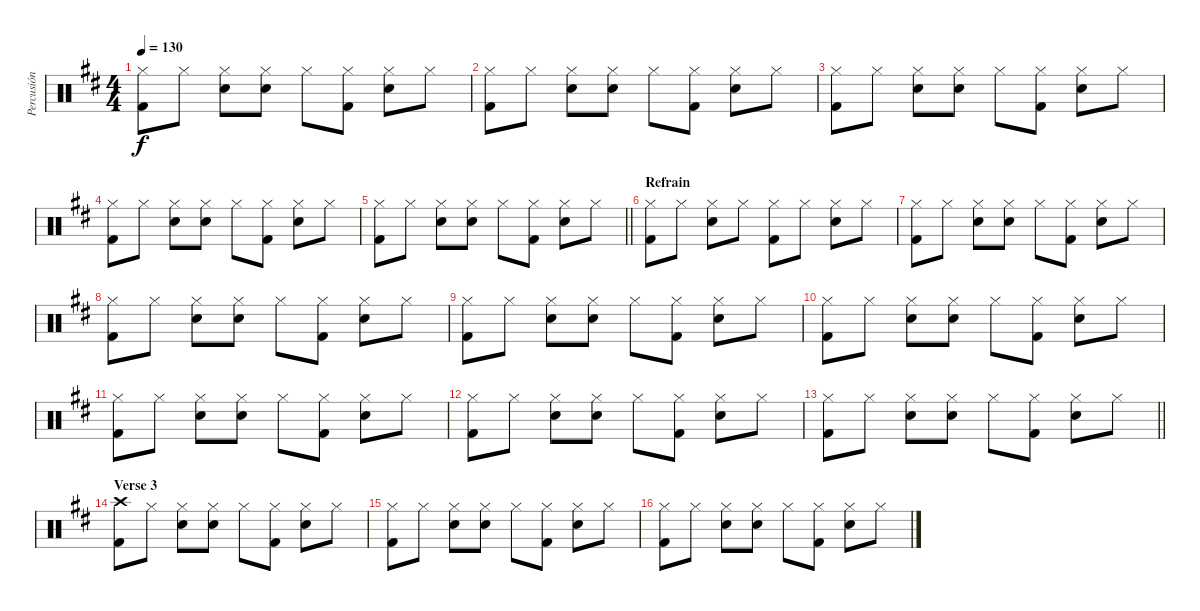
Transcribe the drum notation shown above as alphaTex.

\track ("Percusión" "Percusión") {instrument percussion}
\staff {score}
\articulation defaults
\ts (4 4)
\tempo 130
\clef neutral
\ks d
("Kick (hit) 2" "Hi-Hat (closed)").8{dy f} "Hi-Hat (closed)".8 ("Snare (hit) 2" "Hi-Hat (closed)").8 ("Snare (hit) 2" "Hi-Hat (closed)").8 "Hi-Hat (closed)".8 ("Kick (hit) 2" "Hi-Hat (closed)").8 ("Snare (hit) 2" "Hi-Hat (closed)").8 "Hi-Hat (closed)".8 |
("Kick (hit) 2" "Hi-Hat (closed)").8 "Hi-Hat (closed)".8 ("Snare (hit) 2" "Hi-Hat (closed)").8 ("Snare (hit) 2" "Hi-Hat (closed)").8 "Hi-Hat (closed)".8 ("Kick (hit) 2" "Hi-Hat (closed)").8 ("Snare (hit) 2" "Hi-Hat (closed)").8 "Hi-Hat (closed)".8 |
("Kick (hit) 2" "Hi-Hat (closed)").8 "Hi-Hat (closed)".8 ("Snare (hit) 2" "Hi-Hat (closed)").8 ("Snare (hit) 2" "Hi-Hat (closed)").8 "Hi-Hat (closed)".8 ("Kick (hit) 2" "Hi-Hat (closed)").8 ("Snare (hit) 2" "Hi-Hat (closed)").8 "Hi-Hat (closed)".8 |
("Kick (hit) 2" "Hi-Hat (closed)").8 "Hi-Hat (closed)".8 ("Snare (hit) 2" "Hi-Hat (closed)").8 ("Snare (hit) 2" "Hi-Hat (closed)").8 "Hi-Hat (closed)".8 ("Kick (hit) 2" "Hi-Hat (closed)").8 ("Snare (hit) 2" "Hi-Hat (closed)").8 "Hi-Hat (closed)".8 |
\barLineRight lightlight
("Kick (hit) 2" "Hi-Hat (closed)").8 "Hi-Hat (closed)".8 ("Snare (hit) 2" "Hi-Hat (closed)").8 ("Snare (hit) 2" "Hi-Hat (closed)").8 "Hi-Hat (closed)".8 ("Kick (hit) 2" "Hi-Hat (closed)").8 ("Snare (hit) 2" "Hi-Hat (closed)").8 "Hi-Hat (closed)".8 |
\section ("" "Refrain")
("Kick (hit) 2" "Hi-Hat (closed)").8 "Hi-Hat (closed)".8 ("Snare (hit) 2" "Hi-Hat (closed)").8 "Hi-Hat (closed)".8 ("Kick (hit) 2" "Hi-Hat (closed)").8 "Hi-Hat (closed)".8 ("Snare (hit) 2" "Hi-Hat (closed)").8 "Hi-Hat (closed)".8 |
("Kick (hit) 2" "Hi-Hat (closed)").8 "Hi-Hat (closed)".8 ("Snare (hit) 2" "Hi-Hat (closed)").8 ("Snare (hit) 2" "Hi-Hat (closed)").8 "Hi-Hat (closed)".8 ("Kick (hit) 2" "Hi-Hat (closed)").8 ("Snare (hit) 2" "Hi-Hat (closed)").8 "Hi-Hat (closed)".8 |
("Kick (hit) 2" "Hi-Hat (closed)").8 "Hi-Hat (closed)".8 ("Snare (hit) 2" "Hi-Hat (closed)").8 ("Snare (hit) 2" "Hi-Hat (closed)").8 "Hi-Hat (closed)".8 ("Kick (hit) 2" "Hi-Hat (closed)").8 ("Snare (hit) 2" "Hi-Hat (closed)").8 "Hi-Hat (closed)".8 |
("Kick (hit) 2" "Hi-Hat (closed)").8 "Hi-Hat (closed)".8 ("Snare (hit) 2" "Hi-Hat (closed)").8 ("Snare (hit) 2" "Hi-Hat (closed)").8 "Hi-Hat (closed)".8 ("Kick (hit) 2" "Hi-Hat (closed)").8 ("Snare (hit) 2" "Hi-Hat (closed)").8 "Hi-Hat (closed)".8 |
("Kick (hit) 2" "Hi-Hat (closed)").8 "Hi-Hat (closed)".8 ("Snare (hit) 2" "Hi-Hat (closed)").8 ("Snare (hit) 2" "Hi-Hat (closed)").8 "Hi-Hat (closed)".8 ("Kick (hit) 2" "Hi-Hat (closed)").8 ("Snare (hit) 2" "Hi-Hat (closed)").8 "Hi-Hat (closed)".8 |
("Kick (hit) 2" "Hi-Hat (closed)").8 "Hi-Hat (closed)".8 ("Snare (hit) 2" "Hi-Hat (closed)").8 ("Snare (hit) 2" "Hi-Hat (closed)").8 "Hi-Hat (closed)".8 ("Kick (hit) 2" "Hi-Hat (closed)").8 ("Snare (hit) 2" "Hi-Hat (closed)").8 "Hi-Hat (closed)".8 |
("Kick (hit) 2" "Hi-Hat (closed)").8 "Hi-Hat (closed)".8 ("Snare (hit) 2" "Hi-Hat (closed)").8 ("Snare (hit) 2" "Hi-Hat (closed)").8 "Hi-Hat (closed)".8 ("Kick (hit) 2" "Hi-Hat (closed)").8 ("Snare (hit) 2" "Hi-Hat (closed)").8 "Hi-Hat (closed)".8 |
\barLineRight lightlight
("Kick (hit) 2" "Hi-Hat (closed)").8 "Hi-Hat (closed)".8 ("Snare (hit) 2" "Hi-Hat (closed)").8 ("Snare (hit) 2" "Hi-Hat (closed)").8 "Hi-Hat (closed)".8 ("Kick (hit) 2" "Hi-Hat (closed)").8 ("Snare (hit) 2" "Hi-Hat (closed)").8 "Hi-Hat (closed)".8 |
\section ("" "Verse 3")
("Kick (hit) 2" "Crash high (hit)").8 "Hi-Hat (closed)".8 ("Snare (hit) 2" "Hi-Hat (closed)").8 ("Snare (hit) 2" "Hi-Hat (closed)").8 "Hi-Hat (closed)".8 ("Kick (hit) 2" "Hi-Hat (closed)").8 ("Snare (hit) 2" "Hi-Hat (closed)").8 "Hi-Hat (closed)".8 |
("Kick (hit) 2" "Hi-Hat (closed)").8 "Hi-Hat (closed)".8 ("Snare (hit) 2" "Hi-Hat (closed)").8 ("Snare (hit) 2" "Hi-Hat (closed)").8 "Hi-Hat (closed)".8 ("Kick (hit) 2" "Hi-Hat (closed)").8 ("Snare (hit) 2" "Hi-Hat (closed)").8 "Hi-Hat (closed)".8 |
("Kick (hit) 2" "Hi-Hat (closed)").8 "Hi-Hat (closed)".8 ("Snare (hit) 2" "Hi-Hat (closed)").8 ("Snare (hit) 2" "Hi-Hat (closed)").8 "Hi-Hat (closed)".8 ("Kick (hit) 2" "Hi-Hat (closed)").8 ("Snare (hit) 2" "Hi-Hat (closed)").8 "Hi-Hat (closed)".8
